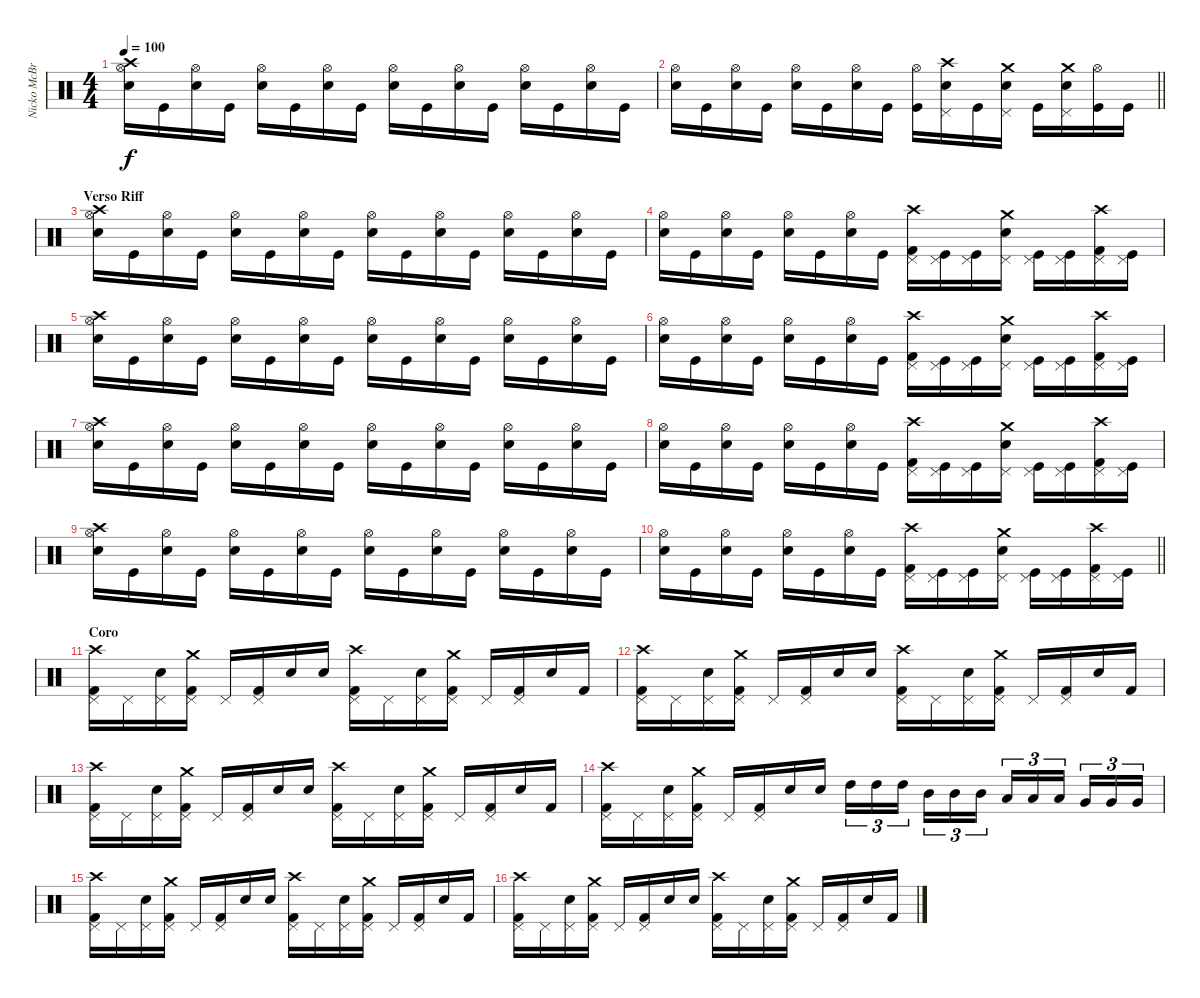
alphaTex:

\track ("Nicko McBrain" "Nicko McBr") {instrument percussion}
\staff {score}
\articulation defaults
\ts (4 4)
\tempo 100
\clef neutral
\ks c
("Snare (hit) 2" "Hi-Hat (open)" "Crash high (hit)").16{dy f} "Kick (hit)".16 ("Snare (hit) 2" "Hi-Hat (open)").16 "Kick (hit)".16 ("Snare (hit) 2" "Hi-Hat (open)").16 "Kick (hit)".16 ("Snare (hit) 2" "Hi-Hat (open)").16 "Kick (hit)".16 ("Snare (hit) 2" "Hi-Hat (open)").16 "Kick (hit)".16 ("Snare (hit) 2" "Hi-Hat (open)").16 "Kick (hit)".16 ("Snare (hit) 2" "Hi-Hat (open)").16 "Kick (hit)".16 ("Snare (hit) 2" "Hi-Hat (open)").16 "Kick (hit)".16 |
\barLineRight lightlight
("Snare (hit) 2" "Hi-Hat (open)").16 "Kick (hit)".16 ("Snare (hit) 2" "Hi-Hat (open)").16 "Kick (hit)".16 ("Snare (hit) 2" "Hi-Hat (open)").16 "Kick (hit)".16 ("Snare (hit) 2" "Hi-Hat (open)").16 "Kick (hit)".16 ("Kick (hit)" "Hi-Hat (open)").16 ("Snare (hit) 2" "Pedal Hi-Hat (hit)" "Crash high (hit)").16 "Kick (hit)".16 ("Snare (hit) 2" "Pedal Hi-Hat (hit)" "Crash medium (hit)").16 "Kick (hit)".16 ("Snare (hit) 2" "Pedal Hi-Hat (hit)" "Crash medium (hit)").16 ("Kick (hit)" "Hi-Hat (open)").16 "Kick (hit)".16 |
\section ("" "Verso Riff")
("Snare (hit) 2" "Hi-Hat (open)" "Crash high (hit)").16 "Kick (hit)".16 ("Snare (hit) 2" "Hi-Hat (open)").16 "Kick (hit)".16 ("Snare (hit) 2" "Hi-Hat (open)").16 "Kick (hit)".16 ("Snare (hit) 2" "Hi-Hat (open)").16 "Kick (hit)".16 ("Snare (hit) 2" "Hi-Hat (open)").16 "Kick (hit)".16 ("Snare (hit) 2" "Hi-Hat (open)").16 "Kick (hit)".16 ("Snare (hit) 2" "Hi-Hat (open)").16 "Kick (hit)".16 ("Snare (hit) 2" "Hi-Hat (open)").16 "Kick (hit)".16 |
("Snare (hit) 2" "Hi-Hat (open)").16 "Kick (hit)".16 ("Snare (hit) 2" "Hi-Hat (open)").16 "Kick (hit)".16 ("Snare (hit) 2" "Hi-Hat (open)").16 "Kick (hit)".16 ("Snare (hit) 2" "Hi-Hat (open)").16 "Kick (hit)".16 ("Kick (hit) 2" "Pedal Hi-Hat (hit)" "Crash high (hit)").16 ("Kick (hit)" "Pedal Hi-Hat (hit)").16 ("Kick (hit)" "Pedal Hi-Hat (hit)").16 ("Snare (hit) 2" "Pedal Hi-Hat (hit)" "Crash medium (hit)").16 ("Kick (hit)" "Pedal Hi-Hat (hit)").16 ("Kick (hit)" "Pedal Hi-Hat (hit)").16 ("Kick (hit) 2" "Pedal Hi-Hat (hit)" "Crash high (hit)").16 ("Kick (hit)" "Pedal Hi-Hat (hit)").16 |
("Snare (hit) 2" "Hi-Hat (open)" "Crash high (hit)").16 "Kick (hit)".16 ("Snare (hit) 2" "Hi-Hat (open)").16 "Kick (hit)".16 ("Snare (hit) 2" "Hi-Hat (open)").16 "Kick (hit)".16 ("Snare (hit) 2" "Hi-Hat (open)").16 "Kick (hit)".16 ("Snare (hit) 2" "Hi-Hat (open)").16 "Kick (hit)".16 ("Snare (hit) 2" "Hi-Hat (open)").16 "Kick (hit)".16 ("Snare (hit) 2" "Hi-Hat (open)").16 "Kick (hit)".16 ("Snare (hit) 2" "Hi-Hat (open)").16 "Kick (hit)".16 |
("Snare (hit) 2" "Hi-Hat (open)").16 "Kick (hit)".16 ("Snare (hit) 2" "Hi-Hat (open)").16 "Kick (hit)".16 ("Snare (hit) 2" "Hi-Hat (open)").16 "Kick (hit)".16 ("Snare (hit) 2" "Hi-Hat (open)").16 "Kick (hit)".16 ("Kick (hit) 2" "Pedal Hi-Hat (hit)" "Crash high (hit)").16 ("Kick (hit)" "Pedal Hi-Hat (hit)").16 ("Kick (hit)" "Pedal Hi-Hat (hit)").16 ("Snare (hit) 2" "Pedal Hi-Hat (hit)" "Crash medium (hit)").16 ("Kick (hit)" "Pedal Hi-Hat (hit)").16 ("Kick (hit)" "Pedal Hi-Hat (hit)").16 ("Kick (hit) 2" "Pedal Hi-Hat (hit)" "Crash high (hit)").16 ("Kick (hit)" "Pedal Hi-Hat (hit)").16 |
("Snare (hit) 2" "Hi-Hat (open)" "Crash high (hit)").16 "Kick (hit)".16 ("Snare (hit) 2" "Hi-Hat (open)").16 "Kick (hit)".16 ("Snare (hit) 2" "Hi-Hat (open)").16 "Kick (hit)".16 ("Snare (hit) 2" "Hi-Hat (open)").16 "Kick (hit)".16 ("Snare (hit) 2" "Hi-Hat (open)").16 "Kick (hit)".16 ("Snare (hit) 2" "Hi-Hat (open)").16 "Kick (hit)".16 ("Snare (hit) 2" "Hi-Hat (open)").16 "Kick (hit)".16 ("Snare (hit) 2" "Hi-Hat (open)").16 "Kick (hit)".16 |
("Snare (hit) 2" "Hi-Hat (open)").16 "Kick (hit)".16 ("Snare (hit) 2" "Hi-Hat (open)").16 "Kick (hit)".16 ("Snare (hit) 2" "Hi-Hat (open)").16 "Kick (hit)".16 ("Snare (hit) 2" "Hi-Hat (open)").16 "Kick (hit)".16 ("Kick (hit) 2" "Pedal Hi-Hat (hit)" "Crash high (hit)").16 ("Kick (hit)" "Pedal Hi-Hat (hit)").16 ("Kick (hit)" "Pedal Hi-Hat (hit)").16 ("Snare (hit) 2" "Pedal Hi-Hat (hit)" "Crash medium (hit)").16 ("Kick (hit)" "Pedal Hi-Hat (hit)").16 ("Kick (hit)" "Pedal Hi-Hat (hit)").16 ("Kick (hit) 2" "Pedal Hi-Hat (hit)" "Crash high (hit)").16 ("Kick (hit)" "Pedal Hi-Hat (hit)").16 |
("Snare (hit) 2" "Hi-Hat (open)" "Crash high (hit)").16 "Kick (hit)".16 ("Snare (hit) 2" "Hi-Hat (open)").16 "Kick (hit)".16 ("Snare (hit) 2" "Hi-Hat (open)").16 "Kick (hit)".16 ("Snare (hit) 2" "Hi-Hat (open)").16 "Kick (hit)".16 ("Snare (hit) 2" "Hi-Hat (open)").16 "Kick (hit)".16 ("Snare (hit) 2" "Hi-Hat (open)").16 "Kick (hit)".16 ("Snare (hit) 2" "Hi-Hat (open)").16 "Kick (hit)".16 ("Snare (hit) 2" "Hi-Hat (open)").16 "Kick (hit)".16 |
\barLineRight lightlight
("Snare (hit) 2" "Hi-Hat (open)").16 "Kick (hit)".16 ("Snare (hit) 2" "Hi-Hat (open)").16 "Kick (hit)".16 ("Snare (hit) 2" "Hi-Hat (open)").16 "Kick (hit)".16 ("Snare (hit) 2" "Hi-Hat (open)").16 "Kick (hit)".16 ("Kick (hit) 2" "Pedal Hi-Hat (hit)" "Crash high (hit)").16 ("Kick (hit)" "Pedal Hi-Hat (hit)").16 ("Kick (hit)" "Pedal Hi-Hat (hit)").16 ("Snare (hit) 2" "Pedal Hi-Hat (hit)" "Crash medium (hit)").16 ("Kick (hit)" "Pedal Hi-Hat (hit)").16 ("Kick (hit)" "Pedal Hi-Hat (hit)").16 ("Kick (hit) 2" "Pedal Hi-Hat (hit)" "Crash high (hit)").16 ("Kick (hit)" "Pedal Hi-Hat (hit)").16 |
\section ("" "Coro")
("Kick (hit) 2" "Pedal Hi-Hat (hit)" "Crash high (hit)").16 "Pedal Hi-Hat (hit)".16 ("Snare (hit) 2" "Pedal Hi-Hat (hit)").16 ("Kick (hit) 2" "Pedal Hi-Hat (hit)" "Crash medium (hit)").16 "Pedal Hi-Hat (hit)".16 ("Kick (hit) 2" "Pedal Hi-Hat (hit)").16 "Snare (hit) 2".16 "Snare (hit) 2".16 ("Kick (hit) 2" "Pedal Hi-Hat (hit)" "Crash high (hit)").16 "Pedal Hi-Hat (hit)".16 ("Snare (hit) 2" "Pedal Hi-Hat (hit)").16 ("Kick (hit) 2" "Pedal Hi-Hat (hit)" "Crash medium (hit)").16 "Pedal Hi-Hat (hit)".16 ("Kick (hit) 2" "Pedal Hi-Hat (hit)").16 "Snare (hit) 2".16 "Kick (hit) 2".16 |
("Kick (hit) 2" "Pedal Hi-Hat (hit)" "Crash high (hit)").16 "Pedal Hi-Hat (hit)".16 ("Snare (hit) 2" "Pedal Hi-Hat (hit)").16 ("Kick (hit) 2" "Pedal Hi-Hat (hit)" "Crash medium (hit)").16 "Pedal Hi-Hat (hit)".16 ("Kick (hit) 2" "Pedal Hi-Hat (hit)").16 "Snare (hit) 2".16 "Snare (hit) 2".16 ("Kick (hit) 2" "Pedal Hi-Hat (hit)" "Crash high (hit)").16 "Pedal Hi-Hat (hit)".16 ("Snare (hit) 2" "Pedal Hi-Hat (hit)").16 ("Kick (hit) 2" "Pedal Hi-Hat (hit)" "Crash medium (hit)").16 "Pedal Hi-Hat (hit)".16 ("Kick (hit) 2" "Pedal Hi-Hat (hit)").16 "Snare (hit) 2".16 "Kick (hit) 2".16 |
("Kick (hit) 2" "Pedal Hi-Hat (hit)" "Crash high (hit)").16 "Pedal Hi-Hat (hit)".16 ("Snare (hit) 2" "Pedal Hi-Hat (hit)").16 ("Kick (hit) 2" "Pedal Hi-Hat (hit)" "Crash medium (hit)").16 "Pedal Hi-Hat (hit)".16 ("Kick (hit) 2" "Pedal Hi-Hat (hit)").16 "Snare (hit) 2".16 "Snare (hit) 2".16 ("Kick (hit) 2" "Pedal Hi-Hat (hit)" "Crash high (hit)").16 "Pedal Hi-Hat (hit)".16 ("Snare (hit) 2" "Pedal Hi-Hat (hit)").16 ("Kick (hit) 2" "Pedal Hi-Hat (hit)" "Crash medium (hit)").16 "Pedal Hi-Hat (hit)".16 ("Kick (hit) 2" "Pedal Hi-Hat (hit)").16 "Snare (hit) 2".16 "Kick (hit) 2".16 |
("Kick (hit) 2" "Pedal Hi-Hat (hit)" "Crash high (hit)").16 "Pedal Hi-Hat (hit)".16 ("Snare (hit) 2" "Pedal Hi-Hat (hit)").16 ("Kick (hit) 2" "Pedal Hi-Hat (hit)" "Crash medium (hit)").16 "Pedal Hi-Hat (hit)".16 ("Kick (hit) 2" "Pedal Hi-Hat (hit)").16 "Snare (hit) 2".16 "Snare (hit) 2".16 "High Tom (hit)".16{tu (3 2)} "High Tom (hit)".16{tu (3 2)} "High Tom (hit)".16{tu (3 2) beam splitsecondary} "Mid Tom (hit)".16{tu (3 2)} "Mid Tom (hit)".16{tu (3 2)} "Mid Tom (hit)".16{tu (3 2)} "Low Tom (hit)".16{tu (3 2)} "Low Tom (hit)".16{tu (3 2)} "Low Tom (hit)".16{tu (3 2) beam splitsecondary} "Very Low Tom (hit)".16{tu (3 2)} "Very Low Tom (hit)".16{tu (3 2)} "Very Low Tom (hit)".16{tu (3 2)} |
("Kick (hit) 2" "Pedal Hi-Hat (hit)" "Crash high (hit)").16 "Pedal Hi-Hat (hit)".16 ("Snare (hit) 2" "Pedal Hi-Hat (hit)").16 ("Kick (hit) 2" "Pedal Hi-Hat (hit)" "Crash medium (hit)").16 "Pedal Hi-Hat (hit)".16 ("Kick (hit) 2" "Pedal Hi-Hat (hit)").16 "Snare (hit) 2".16 "Snare (hit) 2".16 ("Kick (hit) 2" "Pedal Hi-Hat (hit)" "Crash high (hit)").16 "Pedal Hi-Hat (hit)".16 ("Snare (hit) 2" "Pedal Hi-Hat (hit)").16 ("Kick (hit) 2" "Pedal Hi-Hat (hit)" "Crash medium (hit)").16 "Pedal Hi-Hat (hit)".16 ("Kick (hit) 2" "Pedal Hi-Hat (hit)").16 "Snare (hit) 2".16 "Kick (hit) 2".16 |
("Kick (hit) 2" "Pedal Hi-Hat (hit)" "Crash high (hit)").16 "Pedal Hi-Hat (hit)".16 ("Snare (hit) 2" "Pedal Hi-Hat (hit)").16 ("Kick (hit) 2" "Pedal Hi-Hat (hit)" "Crash medium (hit)").16 "Pedal Hi-Hat (hit)".16 ("Kick (hit) 2" "Pedal Hi-Hat (hit)").16 "Snare (hit) 2".16 "Snare (hit) 2".16 ("Kick (hit) 2" "Pedal Hi-Hat (hit)" "Crash high (hit)").16 "Pedal Hi-Hat (hit)".16 ("Snare (hit) 2" "Pedal Hi-Hat (hit)").16 ("Kick (hit) 2" "Pedal Hi-Hat (hit)" "Crash medium (hit)").16 "Pedal Hi-Hat (hit)".16 ("Kick (hit) 2" "Pedal Hi-Hat (hit)").16 "Snare (hit) 2".16 "Kick (hit) 2".16
